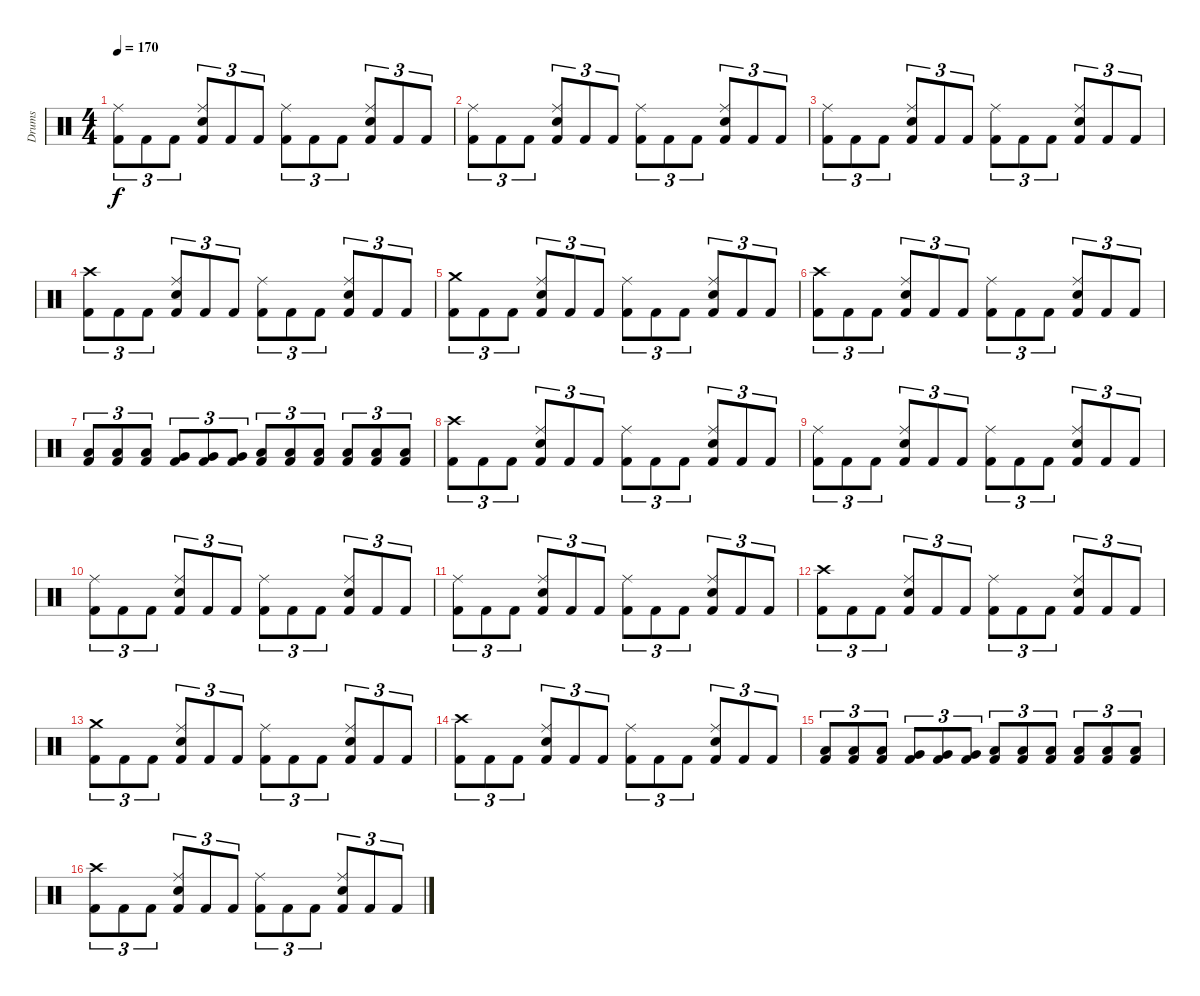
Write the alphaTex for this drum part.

\track ("Drums" "Drums") {instrument percussion}
\staff {score}
\articulation defaults
\ts (4 4)
\tempo 170
\clef neutral
\ks c
("Kick (hit) 2" "Ride (middle)").8{tu (3 2) dy f} "Kick (hit) 2".8{tu (3 2)} "Kick (hit) 2".8{tu (3 2)} ("Kick (hit) 2" "Snare (hit) 2" "Ride (middle)").8{tu (3 2)} "Kick (hit) 2".8{tu (3 2)} "Kick (hit) 2".8{tu (3 2)} ("Kick (hit) 2" "Ride (middle)").8{tu (3 2)} "Kick (hit) 2".8{tu (3 2)} "Kick (hit) 2".8{tu (3 2)} ("Kick (hit) 2" "Snare (hit) 2" "Ride (middle)").8{tu (3 2)} "Kick (hit) 2".8{tu (3 2)} "Kick (hit) 2".8{tu (3 2)} |
("Kick (hit) 2" "Ride (middle)").8{tu (3 2)} "Kick (hit) 2".8{tu (3 2)} "Kick (hit) 2".8{tu (3 2)} ("Kick (hit) 2" "Snare (hit) 2" "Ride (middle)").8{tu (3 2)} "Kick (hit) 2".8{tu (3 2)} "Kick (hit) 2".8{tu (3 2)} ("Kick (hit) 2" "Ride (middle)").8{tu (3 2)} "Kick (hit) 2".8{tu (3 2)} "Kick (hit) 2".8{tu (3 2)} ("Kick (hit) 2" "Snare (hit) 2" "Ride (middle)").8{tu (3 2)} "Kick (hit) 2".8{tu (3 2)} "Kick (hit) 2".8{tu (3 2)} |
("Kick (hit) 2" "Ride (middle)").8{tu (3 2)} "Kick (hit) 2".8{tu (3 2)} "Kick (hit) 2".8{tu (3 2)} ("Kick (hit) 2" "Snare (hit) 2" "Ride (middle)").8{tu (3 2)} "Kick (hit) 2".8{tu (3 2)} "Kick (hit) 2".8{tu (3 2)} ("Kick (hit) 2" "Ride (middle)").8{tu (3 2)} "Kick (hit) 2".8{tu (3 2)} "Kick (hit) 2".8{tu (3 2)} ("Kick (hit) 2" "Snare (hit) 2" "Ride (middle)").8{tu (3 2)} "Kick (hit) 2".8{tu (3 2)} "Kick (hit) 2".8{tu (3 2)} |
("Kick (hit) 2" "Crash high (hit)").8{tu (3 2)} "Kick (hit) 2".8{tu (3 2)} "Kick (hit) 2".8{tu (3 2)} ("Kick (hit) 2" "Snare (hit) 2" "Ride (middle)").8{tu (3 2)} "Kick (hit) 2".8{tu (3 2)} "Kick (hit) 2".8{tu (3 2)} ("Kick (hit) 2" "Ride (middle)").8{tu (3 2)} "Kick (hit) 2".8{tu (3 2)} "Kick (hit) 2".8{tu (3 2)} ("Kick (hit) 2" "Snare (hit) 2" "Ride (middle)").8{tu (3 2)} "Kick (hit) 2".8{tu (3 2)} "Kick (hit) 2".8{tu (3 2)} |
("Kick (hit) 2" "Crash medium (hit)").8{tu (3 2)} "Kick (hit) 2".8{tu (3 2)} "Kick (hit) 2".8{tu (3 2)} ("Kick (hit) 2" "Snare (hit) 2" "Ride (middle)").8{tu (3 2)} "Kick (hit) 2".8{tu (3 2)} "Kick (hit) 2".8{tu (3 2)} ("Kick (hit) 2" "Ride (middle)").8{tu (3 2)} "Kick (hit) 2".8{tu (3 2)} "Kick (hit) 2".8{tu (3 2)} ("Kick (hit) 2" "Snare (hit) 2" "Ride (middle)").8{tu (3 2)} "Kick (hit) 2".8{tu (3 2)} "Kick (hit) 2".8{tu (3 2)} |
("Kick (hit) 2" "Crash high (hit)").8{tu (3 2)} "Kick (hit) 2".8{tu (3 2)} "Kick (hit) 2".8{tu (3 2)} ("Kick (hit) 2" "Snare (hit) 2" "Ride (middle)").8{tu (3 2)} "Kick (hit) 2".8{tu (3 2)} "Kick (hit) 2".8{tu (3 2)} ("Kick (hit) 2" "Ride (middle)").8{tu (3 2)} "Kick (hit) 2".8{tu (3 2)} "Kick (hit) 2".8{tu (3 2)} ("Kick (hit) 2" "Snare (hit) 2" "Ride (middle)").8{tu (3 2)} "Kick (hit) 2".8{tu (3 2)} "Kick (hit) 2".8{tu (3 2)} |
("Kick (hit) 2" "Low Tom (hit)").8{tu (3 2)} ("Kick (hit) 2" "Low Tom (hit)").8{tu (3 2)} ("Kick (hit) 2" "Low Tom (hit)").8{tu (3 2)} ("Kick (hit) 2" "Very Low Tom (hit)").8{tu (3 2)} ("Kick (hit) 2" "Very Low Tom (hit)").8{tu (3 2)} ("Kick (hit) 2" "Very Low Tom (hit)").8{tu (3 2)} ("Kick (hit) 2" "Low Floor Tom (hit)").8{tu (3 2)} ("Kick (hit) 2" "Low Floor Tom (hit)").8{tu (3 2)} ("Kick (hit) 2" "Low Floor Tom (hit)").8{tu (3 2)} ("Kick (hit) 2" "Low Floor Tom (hit)").8{tu (3 2)} ("Kick (hit) 2" "Low Floor Tom (hit)").8{tu (3 2)} ("Kick (hit) 2" "Low Floor Tom (hit)").8{tu (3 2)} |
("Kick (hit) 2" "Crash high (hit)").8{tu (3 2)} "Kick (hit) 2".8{tu (3 2)} "Kick (hit) 2".8{tu (3 2)} ("Kick (hit) 2" "Snare (hit) 2" "Ride (middle)").8{tu (3 2)} "Kick (hit) 2".8{tu (3 2)} "Kick (hit) 2".8{tu (3 2)} ("Kick (hit) 2" "Ride (middle)").8{tu (3 2)} "Kick (hit) 2".8{tu (3 2)} "Kick (hit) 2".8{tu (3 2)} ("Kick (hit) 2" "Snare (hit) 2" "Ride (middle)").8{tu (3 2)} "Kick (hit) 2".8{tu (3 2)} "Kick (hit) 2".8{tu (3 2)} |
("Kick (hit) 2" "Ride (middle)").8{tu (3 2)} "Kick (hit) 2".8{tu (3 2)} "Kick (hit) 2".8{tu (3 2)} ("Kick (hit) 2" "Snare (hit) 2" "Ride (middle)").8{tu (3 2)} "Kick (hit) 2".8{tu (3 2)} "Kick (hit) 2".8{tu (3 2)} ("Kick (hit) 2" "Ride (middle)").8{tu (3 2)} "Kick (hit) 2".8{tu (3 2)} "Kick (hit) 2".8{tu (3 2)} ("Kick (hit) 2" "Snare (hit) 2" "Ride (middle)").8{tu (3 2)} "Kick (hit) 2".8{tu (3 2)} "Kick (hit) 2".8{tu (3 2)} |
("Kick (hit) 2" "Ride (middle)").8{tu (3 2)} "Kick (hit) 2".8{tu (3 2)} "Kick (hit) 2".8{tu (3 2)} ("Kick (hit) 2" "Snare (hit) 2" "Ride (middle)").8{tu (3 2)} "Kick (hit) 2".8{tu (3 2)} "Kick (hit) 2".8{tu (3 2)} ("Kick (hit) 2" "Ride (middle)").8{tu (3 2)} "Kick (hit) 2".8{tu (3 2)} "Kick (hit) 2".8{tu (3 2)} ("Kick (hit) 2" "Snare (hit) 2" "Ride (middle)").8{tu (3 2)} "Kick (hit) 2".8{tu (3 2)} "Kick (hit) 2".8{tu (3 2)} |
("Kick (hit) 2" "Ride (middle)").8{tu (3 2)} "Kick (hit) 2".8{tu (3 2)} "Kick (hit) 2".8{tu (3 2)} ("Kick (hit) 2" "Snare (hit) 2" "Ride (middle)").8{tu (3 2)} "Kick (hit) 2".8{tu (3 2)} "Kick (hit) 2".8{tu (3 2)} ("Kick (hit) 2" "Ride (middle)").8{tu (3 2)} "Kick (hit) 2".8{tu (3 2)} "Kick (hit) 2".8{tu (3 2)} ("Kick (hit) 2" "Snare (hit) 2" "Ride (middle)").8{tu (3 2)} "Kick (hit) 2".8{tu (3 2)} "Kick (hit) 2".8{tu (3 2)} |
("Kick (hit) 2" "Crash high (hit)").8{tu (3 2)} "Kick (hit) 2".8{tu (3 2)} "Kick (hit) 2".8{tu (3 2)} ("Kick (hit) 2" "Snare (hit) 2" "Ride (middle)").8{tu (3 2)} "Kick (hit) 2".8{tu (3 2)} "Kick (hit) 2".8{tu (3 2)} ("Kick (hit) 2" "Ride (middle)").8{tu (3 2)} "Kick (hit) 2".8{tu (3 2)} "Kick (hit) 2".8{tu (3 2)} ("Kick (hit) 2" "Snare (hit) 2" "Ride (middle)").8{tu (3 2)} "Kick (hit) 2".8{tu (3 2)} "Kick (hit) 2".8{tu (3 2)} |
("Kick (hit) 2" "Crash medium (hit)").8{tu (3 2)} "Kick (hit) 2".8{tu (3 2)} "Kick (hit) 2".8{tu (3 2)} ("Kick (hit) 2" "Snare (hit) 2" "Ride (middle)").8{tu (3 2)} "Kick (hit) 2".8{tu (3 2)} "Kick (hit) 2".8{tu (3 2)} ("Kick (hit) 2" "Ride (middle)").8{tu (3 2)} "Kick (hit) 2".8{tu (3 2)} "Kick (hit) 2".8{tu (3 2)} ("Kick (hit) 2" "Snare (hit) 2" "Ride (middle)").8{tu (3 2)} "Kick (hit) 2".8{tu (3 2)} "Kick (hit) 2".8{tu (3 2)} |
("Kick (hit) 2" "Crash high (hit)").8{tu (3 2)} "Kick (hit) 2".8{tu (3 2)} "Kick (hit) 2".8{tu (3 2)} ("Kick (hit) 2" "Snare (hit) 2" "Ride (middle)").8{tu (3 2)} "Kick (hit) 2".8{tu (3 2)} "Kick (hit) 2".8{tu (3 2)} ("Kick (hit) 2" "Ride (middle)").8{tu (3 2)} "Kick (hit) 2".8{tu (3 2)} "Kick (hit) 2".8{tu (3 2)} ("Kick (hit) 2" "Snare (hit) 2" "Ride (middle)").8{tu (3 2)} "Kick (hit) 2".8{tu (3 2)} "Kick (hit) 2".8{tu (3 2)} |
("Kick (hit) 2" "Low Tom (hit)").8{tu (3 2)} ("Kick (hit) 2" "Low Tom (hit)").8{tu (3 2)} ("Kick (hit) 2" "Low Tom (hit)").8{tu (3 2)} ("Kick (hit) 2" "Very Low Tom (hit)").8{tu (3 2)} ("Kick (hit) 2" "Very Low Tom (hit)").8{tu (3 2)} ("Kick (hit) 2" "Very Low Tom (hit)").8{tu (3 2)} ("Kick (hit) 2" "Low Floor Tom (hit)").8{tu (3 2)} ("Kick (hit) 2" "Low Floor Tom (hit)").8{tu (3 2)} ("Kick (hit) 2" "Low Floor Tom (hit)").8{tu (3 2)} ("Kick (hit) 2" "Low Floor Tom (hit)").8{tu (3 2)} ("Kick (hit) 2" "Low Floor Tom (hit)").8{tu (3 2)} ("Kick (hit) 2" "Low Floor Tom (hit)").8{tu (3 2)} |
("Kick (hit) 2" "Crash high (hit)").8{tu (3 2)} "Kick (hit) 2".8{tu (3 2)} "Kick (hit) 2".8{tu (3 2)} ("Kick (hit) 2" "Snare (hit) 2" "Ride (middle)").8{tu (3 2)} "Kick (hit) 2".8{tu (3 2)} "Kick (hit) 2".8{tu (3 2)} ("Kick (hit) 2" "Ride (middle)").8{tu (3 2)} "Kick (hit) 2".8{tu (3 2)} "Kick (hit) 2".8{tu (3 2)} ("Kick (hit) 2" "Snare (hit) 2" "Ride (middle)").8{tu (3 2)} "Kick (hit) 2".8{tu (3 2)} "Kick (hit) 2".8{tu (3 2)}
